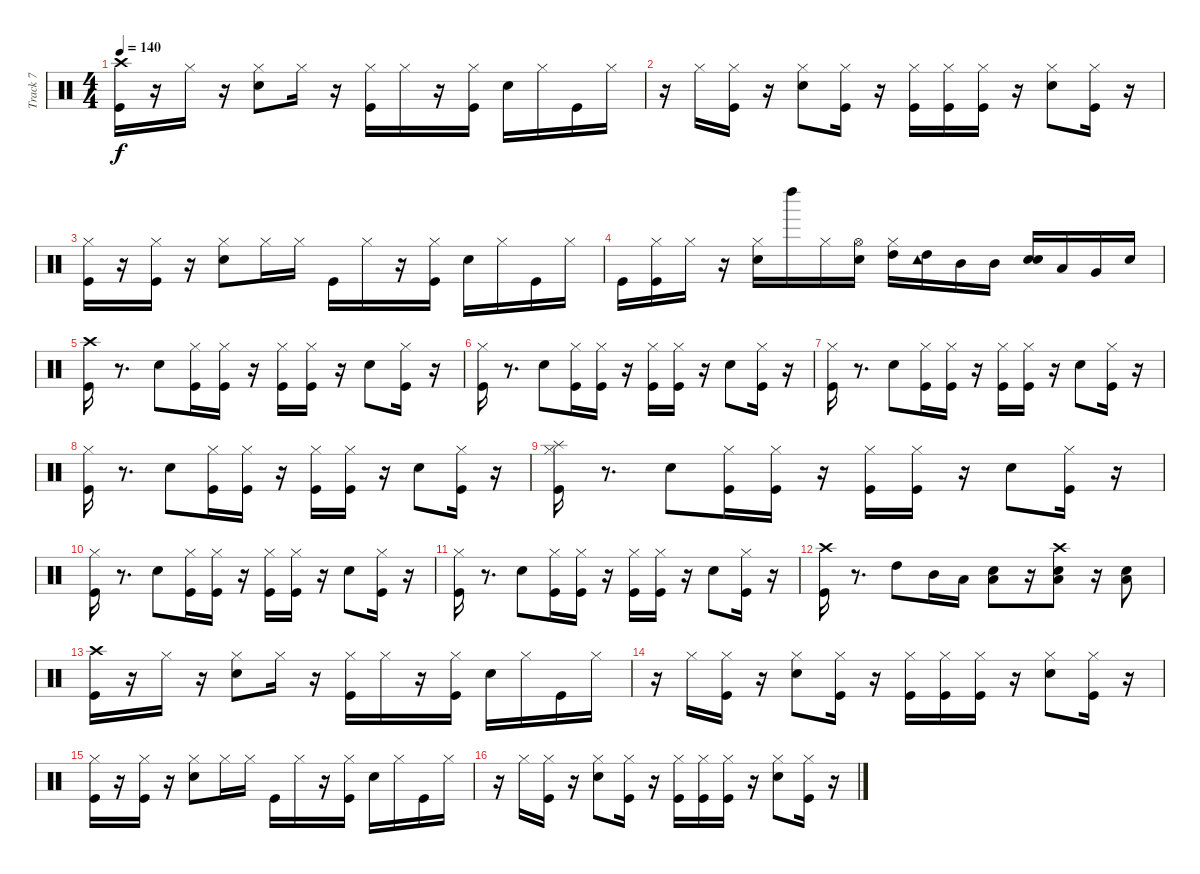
\track ("Track 7" "Track 7") {instrument percussion}
\staff {score}
\articulation defaults
\ts (4 4)
\tempo 140
\clef neutral
\ks c
("Crash high (hit)" "Kick (hit)").16{dy f} r.16 "Hi-Hat (closed)".16 r.16 ("Hi-Hat (closed)" "Electric Snare (hit)").8 "Hi-Hat (closed)".16 r.16 ("Hi-Hat (closed)" "Kick (hit)").16 "Hi-Hat (closed)".16 r.16 ("Kick (hit)" "Hi-Hat (closed)").16 "Electric Snare (hit)".16 "Hi-Hat (closed)".16 "Kick (hit)".16 "Hi-Hat (closed)".16 |
r.16 "Hi-Hat (closed)".16 ("Hi-Hat (closed)" "Kick (hit)").16 r.16 ("Hi-Hat (closed)" "Electric Snare (hit)").8 ("Hi-Hat (closed)" "Kick (hit)").16 r.16 ("Hi-Hat (closed)" "Kick (hit)").16 ("Kick (hit)" "Hi-Hat (closed)").16 ("Hi-Hat (closed)" "Kick (hit)").16 r.16 ("Hi-Hat (closed)" "Electric Snare (hit)").8 ("Hi-Hat (closed)" "Kick (hit)").16 r.16 |
("Hi-Hat (closed)" "Kick (hit)").16 r.16 ("Hi-Hat (closed)" "Kick (hit)").16 r.16 ("Hi-Hat (closed)" "Electric Snare (hit)").8 "Hi-Hat (closed)".16 "Hi-Hat (closed)".16 "Kick (hit)".16 "Hi-Hat (closed)".16 r.16 ("Kick (hit)" "Hi-Hat (closed)").16 "Electric Snare (hit)".16 "Hi-Hat (closed)".16 "Kick (hit)".16 "Hi-Hat (closed)".16 |
"Kick (hit)".16 ("Kick (hit)" "Hi-Hat (closed)").16 "Hi-Hat (closed)".16 r.16 ("Hi-Hat (closed)" "Electric Snare (hit)").16 "Left Maraca (hit)".16 "Hi-Hat (closed)".16 ("Hi-Hat (open)" "Electric Snare (hit)").16 ("Hi-Hat (closed)" "High Tom (hit)").16 ("Tambourine (hit)" "High Tom (hit)").16 "Mid Tom (hit)".16 "Mid Tom (hit)".16 ("Electric Snare (hit)" "Electric Snare (hit)").16 "Low Tom (hit)".16 "Very Low Tom (hit)".16 "Electric Snare (hit)".16 |
("Kick (hit)" "Crash high (hit)").16 r.8{d} "Electric Snare (hit)".8 ("Kick (hit)" "Hi-Hat (closed)").16 ("Hi-Hat (closed)" "Kick (hit)").16 r.16 ("Hi-Hat (closed)" "Kick (hit)").16 ("Kick (hit)" "Hi-Hat (closed)").16 r.16 "Electric Snare (hit)".8 ("Kick (hit)" "Hi-Hat (closed)").16 r.16 |
("Kick (hit)" "Hi-Hat (closed)").16 r.8{d} "Electric Snare (hit)".8 ("Hi-Hat (closed)" "Kick (hit)").16 ("Kick (hit)" "Hi-Hat (closed)").16 r.16 ("Kick (hit)" "Hi-Hat (closed)").16 ("Kick (hit)" "Hi-Hat (closed)").16 r.16 "Electric Snare (hit)".8 ("Kick (hit)" "Hi-Hat (closed)").16 r.16 |
("Kick (hit)" "Hi-Hat (closed)").16 r.8{d} "Electric Snare (hit)".8 ("Hi-Hat (closed)" "Kick (hit)").16 ("Kick (hit)" "Hi-Hat (closed)").16 r.16 ("Kick (hit)" "Hi-Hat (closed)").16 ("Kick (hit)" "Hi-Hat (closed)").16 r.16 "Electric Snare (hit)".8 ("Kick (hit)" "Hi-Hat (closed)").16 r.16 |
("Kick (hit)" "Hi-Hat (closed)").16 r.8{d} "Electric Snare (hit)".8 ("Hi-Hat (closed)" "Kick (hit)").16 ("Kick (hit)" "Hi-Hat (closed)").16 r.16 ("Kick (hit)" "Hi-Hat (closed)").16 ("Kick (hit)" "Hi-Hat (closed)").16 r.16 "Electric Snare (hit)".8 ("Kick (hit)" "Hi-Hat (closed)").16 r.16 |
("Splash (hit)" "Kick (hit)" "Hi-Hat (closed)").16 r.8{d} "Electric Snare (hit)".8 ("Hi-Hat (closed)" "Kick (hit)").16 ("Kick (hit)" "Hi-Hat (closed)").16 r.16 ("Kick (hit)" "Hi-Hat (closed)").16 ("Kick (hit)" "Hi-Hat (closed)").16 r.16 "Electric Snare (hit)".8 ("Kick (hit)" "Hi-Hat (closed)").16 r.16 |
("Kick (hit)" "Hi-Hat (closed)").16 r.8{d} "Electric Snare (hit)".8 ("Hi-Hat (closed)" "Kick (hit)").16 ("Kick (hit)" "Hi-Hat (closed)").16 r.16 ("Kick (hit)" "Hi-Hat (closed)").16 ("Kick (hit)" "Hi-Hat (closed)").16 r.16 "Electric Snare (hit)".8 ("Kick (hit)" "Hi-Hat (closed)").16 r.16 |
("Kick (hit)" "Hi-Hat (closed)").16 r.8{d} "Electric Snare (hit)".8 ("Hi-Hat (closed)" "Kick (hit)").16 ("Kick (hit)" "Hi-Hat (closed)").16 r.16 ("Kick (hit)" "Hi-Hat (closed)").16 ("Kick (hit)" "Hi-Hat (closed)").16 r.16 "Electric Snare (hit)".8 ("Kick (hit)" "Hi-Hat (closed)").16 r.16 |
("Kick (hit)" "Crash high (hit)").16 r.8{d} "High Tom (hit)".8 "Mid Tom (hit)".16 "Low Tom (hit)".16 ("Electric Snare (hit)" "Low Floor Tom (hit)").8 r.16 ("Crash high (hit)" "Electric Snare (hit)" "Low Floor Tom (hit)").8 r.16 ("Low Floor Tom (hit)" "Electric Snare (hit)").8 |
("Crash high (hit)" "Kick (hit)").16 r.16 "Hi-Hat (closed)".16 r.16 ("Hi-Hat (closed)" "Electric Snare (hit)").8 "Hi-Hat (closed)".16 r.16 ("Hi-Hat (closed)" "Kick (hit)").16 "Hi-Hat (closed)".16 r.16 ("Kick (hit)" "Hi-Hat (closed)").16 "Electric Snare (hit)".16 "Hi-Hat (closed)".16 "Kick (hit)".16 "Hi-Hat (closed)".16 |
r.16 "Hi-Hat (closed)".16 ("Hi-Hat (closed)" "Kick (hit)").16 r.16 ("Hi-Hat (closed)" "Electric Snare (hit)").8 ("Hi-Hat (closed)" "Kick (hit)").16 r.16 ("Hi-Hat (closed)" "Kick (hit)").16 ("Kick (hit)" "Hi-Hat (closed)").16 ("Hi-Hat (closed)" "Kick (hit)").16 r.16 ("Hi-Hat (closed)" "Electric Snare (hit)").8 ("Hi-Hat (closed)" "Kick (hit)").16 r.16 |
("Hi-Hat (closed)" "Kick (hit)").16 r.16 ("Hi-Hat (closed)" "Kick (hit)").16 r.16 ("Hi-Hat (closed)" "Electric Snare (hit)").8 "Hi-Hat (closed)".16 "Hi-Hat (closed)".16 "Kick (hit)".16 "Hi-Hat (closed)".16 r.16 ("Kick (hit)" "Hi-Hat (closed)").16 "Electric Snare (hit)".16 "Hi-Hat (closed)".16 "Kick (hit)".16 "Hi-Hat (closed)".16 |
r.16 "Hi-Hat (closed)".16 ("Hi-Hat (closed)" "Kick (hit)").16 r.16 ("Hi-Hat (closed)" "Electric Snare (hit)").8 ("Hi-Hat (closed)" "Kick (hit)").16 r.16 ("Hi-Hat (closed)" "Kick (hit)").16 ("Kick (hit)" "Hi-Hat (closed)").16 ("Hi-Hat (closed)" "Kick (hit)").16 r.16 ("Hi-Hat (closed)" "Electric Snare (hit)").8 ("Hi-Hat (closed)" "Kick (hit)").16 r.16
